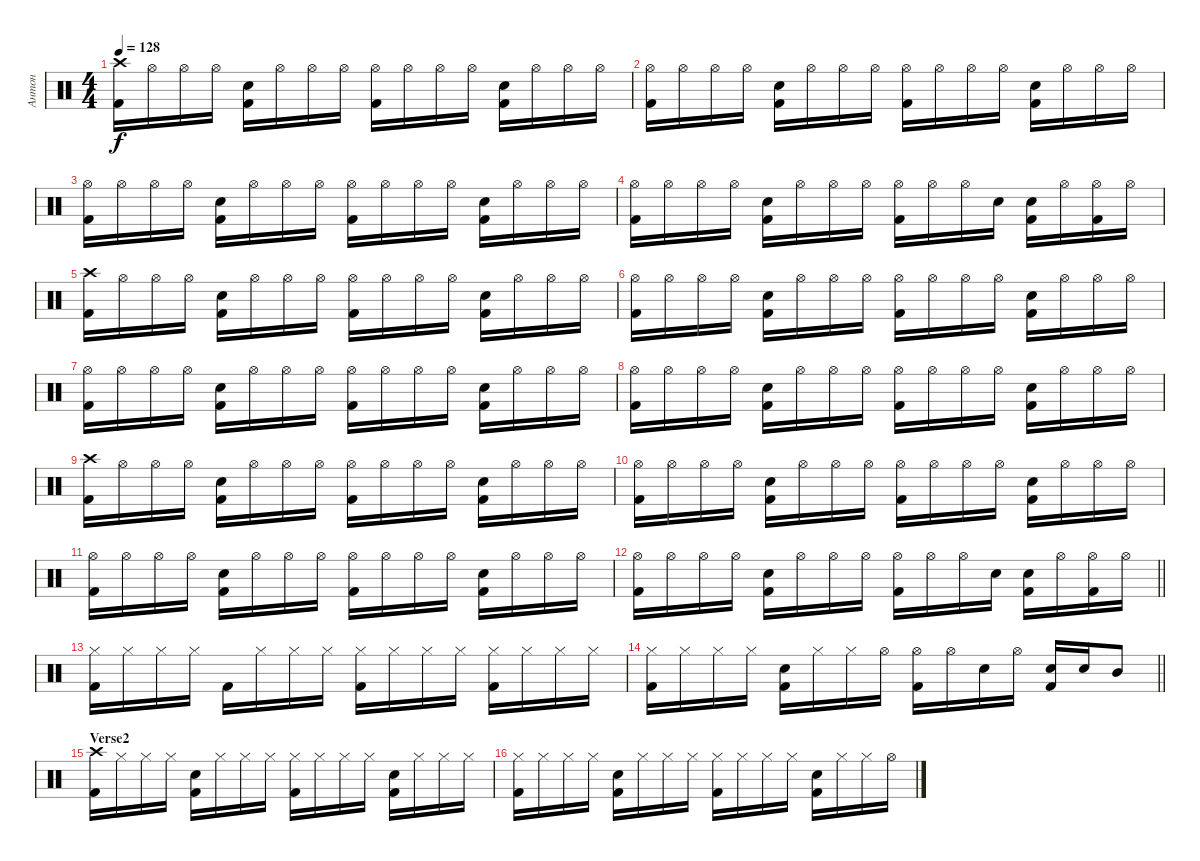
\track ("Антон" "Антон") {instrument percussion}
\staff {score}
\articulation defaults
\ts (4 4)
\tempo 128
\clef neutral
\ks c
("Crash high (hit)" "Kick (hit) 2").16{dy f} "Hi-Hat (open)".16 "Hi-Hat (open)".16 "Hi-Hat (open)".16 ("Snare (hit) 2" "Kick (hit) 2").16 "Hi-Hat (open)".16 "Hi-Hat (open)".16 "Hi-Hat (open)".16 ("Hi-Hat (open)" "Kick (hit) 2").16 "Hi-Hat (open)".16 "Hi-Hat (open)".16 "Hi-Hat (open)".16 ("Snare (hit) 2" "Kick (hit) 2").16 "Hi-Hat (open)".16 "Hi-Hat (open)".16 "Hi-Hat (open)".16 |
("Hi-Hat (open)" "Kick (hit) 2").16 "Hi-Hat (open)".16 "Hi-Hat (open)".16 "Hi-Hat (open)".16 ("Snare (hit) 2" "Kick (hit) 2").16 "Hi-Hat (open)".16 "Hi-Hat (open)".16 "Hi-Hat (open)".16 ("Hi-Hat (open)" "Kick (hit) 2").16 "Hi-Hat (open)".16 "Hi-Hat (open)".16 "Hi-Hat (open)".16 ("Snare (hit) 2" "Kick (hit) 2").16 "Hi-Hat (open)".16 "Hi-Hat (open)".16 "Hi-Hat (open)".16 |
("Hi-Hat (open)" "Kick (hit) 2").16 "Hi-Hat (open)".16 "Hi-Hat (open)".16 "Hi-Hat (open)".16 ("Snare (hit) 2" "Kick (hit) 2").16 "Hi-Hat (open)".16 "Hi-Hat (open)".16 "Hi-Hat (open)".16 ("Hi-Hat (open)" "Kick (hit) 2").16 "Hi-Hat (open)".16 "Hi-Hat (open)".16 "Hi-Hat (open)".16 ("Snare (hit) 2" "Kick (hit) 2").16 "Hi-Hat (open)".16 "Hi-Hat (open)".16 "Hi-Hat (open)".16 |
("Hi-Hat (open)" "Kick (hit) 2").16 "Hi-Hat (open)".16 "Hi-Hat (open)".16 "Hi-Hat (open)".16 ("Snare (hit) 2" "Kick (hit) 2").16 "Hi-Hat (open)".16 "Hi-Hat (open)".16 "Hi-Hat (open)".16 ("Hi-Hat (open)" "Kick (hit) 2").16 "Hi-Hat (open)".16 "Hi-Hat (open)".16 "Snare (hit) 2".16 ("Snare (hit) 2" "Kick (hit) 2").16 "Hi-Hat (open)".16 ("Hi-Hat (open)" "Kick (hit) 2").16 "Hi-Hat (open)".16 |
("Crash high (hit)" "Kick (hit) 2").16 "Hi-Hat (open)".16 "Hi-Hat (open)".16 "Hi-Hat (open)".16 ("Snare (hit) 2" "Kick (hit) 2").16 "Hi-Hat (open)".16 "Hi-Hat (open)".16 "Hi-Hat (open)".16 ("Hi-Hat (open)" "Kick (hit) 2").16 "Hi-Hat (open)".16 "Hi-Hat (open)".16 "Hi-Hat (open)".16 ("Snare (hit) 2" "Kick (hit) 2").16 "Hi-Hat (open)".16 "Hi-Hat (open)".16 "Hi-Hat (open)".16 |
("Hi-Hat (open)" "Kick (hit) 2").16 "Hi-Hat (open)".16 "Hi-Hat (open)".16 "Hi-Hat (open)".16 ("Snare (hit) 2" "Kick (hit) 2").16 "Hi-Hat (open)".16 "Hi-Hat (open)".16 "Hi-Hat (open)".16 ("Hi-Hat (open)" "Kick (hit) 2").16 "Hi-Hat (open)".16 "Hi-Hat (open)".16 "Hi-Hat (open)".16 ("Snare (hit) 2" "Kick (hit) 2").16 "Hi-Hat (open)".16 "Hi-Hat (open)".16 "Hi-Hat (open)".16 |
("Hi-Hat (open)" "Kick (hit) 2").16 "Hi-Hat (open)".16 "Hi-Hat (open)".16 "Hi-Hat (open)".16 ("Snare (hit) 2" "Kick (hit) 2").16 "Hi-Hat (open)".16 "Hi-Hat (open)".16 "Hi-Hat (open)".16 ("Hi-Hat (open)" "Kick (hit) 2").16 "Hi-Hat (open)".16 "Hi-Hat (open)".16 "Hi-Hat (open)".16 ("Snare (hit) 2" "Kick (hit) 2").16 "Hi-Hat (open)".16 "Hi-Hat (open)".16 "Hi-Hat (open)".16 |
("Hi-Hat (open)" "Kick (hit) 2").16 "Hi-Hat (open)".16 "Hi-Hat (open)".16 "Hi-Hat (open)".16 ("Snare (hit) 2" "Kick (hit) 2").16 "Hi-Hat (open)".16 "Hi-Hat (open)".16 "Hi-Hat (open)".16 ("Hi-Hat (open)" "Kick (hit) 2").16 "Hi-Hat (open)".16 "Hi-Hat (open)".16 "Hi-Hat (open)".16 ("Snare (hit) 2" "Kick (hit) 2").16 "Hi-Hat (open)".16 "Hi-Hat (open)".16 "Hi-Hat (open)".16 |
("Crash high (hit)" "Kick (hit) 2").16 "Hi-Hat (open)".16 "Hi-Hat (open)".16 "Hi-Hat (open)".16 ("Snare (hit) 2" "Kick (hit) 2").16 "Hi-Hat (open)".16 "Hi-Hat (open)".16 "Hi-Hat (open)".16 ("Hi-Hat (open)" "Kick (hit) 2").16 "Hi-Hat (open)".16 "Hi-Hat (open)".16 "Hi-Hat (open)".16 ("Snare (hit) 2" "Kick (hit) 2").16 "Hi-Hat (open)".16 "Hi-Hat (open)".16 "Hi-Hat (open)".16 |
("Hi-Hat (open)" "Kick (hit) 2").16 "Hi-Hat (open)".16 "Hi-Hat (open)".16 "Hi-Hat (open)".16 ("Snare (hit) 2" "Kick (hit) 2").16 "Hi-Hat (open)".16 "Hi-Hat (open)".16 "Hi-Hat (open)".16 ("Hi-Hat (open)" "Kick (hit) 2").16 "Hi-Hat (open)".16 "Hi-Hat (open)".16 "Hi-Hat (open)".16 ("Snare (hit) 2" "Kick (hit) 2").16 "Hi-Hat (open)".16 "Hi-Hat (open)".16 "Hi-Hat (open)".16 |
("Hi-Hat (open)" "Kick (hit) 2").16 "Hi-Hat (open)".16 "Hi-Hat (open)".16 "Hi-Hat (open)".16 ("Snare (hit) 2" "Kick (hit) 2").16 "Hi-Hat (open)".16 "Hi-Hat (open)".16 "Hi-Hat (open)".16 ("Hi-Hat (open)" "Kick (hit) 2").16 "Hi-Hat (open)".16 "Hi-Hat (open)".16 "Hi-Hat (open)".16 ("Snare (hit) 2" "Kick (hit) 2").16 "Hi-Hat (open)".16 "Hi-Hat (open)".16 "Hi-Hat (open)".16 |
\barLineRight lightlight
("Hi-Hat (open)" "Kick (hit) 2").16 "Hi-Hat (open)".16 "Hi-Hat (open)".16 "Hi-Hat (open)".16 ("Snare (hit) 2" "Kick (hit) 2").16 "Hi-Hat (open)".16 "Hi-Hat (open)".16 "Hi-Hat (open)".16 ("Hi-Hat (open)" "Kick (hit) 2").16 "Hi-Hat (open)".16 "Hi-Hat (open)".16 "Snare (hit) 2".16 ("Snare (hit) 2" "Kick (hit) 2").16 "Hi-Hat (open)".16 ("Hi-Hat (open)" "Kick (hit) 2").16 "Hi-Hat (open)".16 |
("Hi-Hat (closed)" "Kick (hit) 2").16 "Hi-Hat (closed)".16 "Hi-Hat (closed)".16 "Hi-Hat (closed)".16 "Kick (hit) 2".16 "Hi-Hat (closed)".16 "Hi-Hat (closed)".16 "Hi-Hat (closed)".16 ("Hi-Hat (closed)" "Kick (hit) 2").16 "Hi-Hat (closed)".16 "Hi-Hat (closed)".16 "Hi-Hat (closed)".16 ("Hi-Hat (closed)" "Kick (hit) 2").16 "Hi-Hat (closed)".16 "Hi-Hat (closed)".16 "Hi-Hat (closed)".16 |
\barLineRight lightlight
("Hi-Hat (closed)" "Kick (hit) 2").16 "Hi-Hat (closed)".16 "Hi-Hat (closed)".16 "Hi-Hat (closed)".16 ("Snare (hit) 2" "Kick (hit) 2").16 "Hi-Hat (closed)".16 "Hi-Hat (closed)".16 "Hi-Hat (open)".16 ("Hi-Hat (open)" "Kick (hit) 2").16 "Hi-Hat (open)".16 "Snare (hit) 2".16 "Hi-Hat (open)".16 ("Snare (hit) 2" "Kick (hit) 2").16 "Snare (hit) 2".16 "Mid Tom (hit)".8 |
\section ("" "Verse2")
("Crash high (hit)" "Kick (hit) 2").16 "Hi-Hat (closed)".16 "Hi-Hat (closed)".16 "Hi-Hat (closed)".16 ("Snare (hit) 2" "Kick (hit) 2").16 "Hi-Hat (closed)".16 "Hi-Hat (closed)".16 "Hi-Hat (closed)".16 ("Hi-Hat (closed)" "Kick (hit) 2").16 "Hi-Hat (closed)".16 "Hi-Hat (closed)".16 "Hi-Hat (closed)".16 ("Snare (hit) 2" "Kick (hit) 2").16 "Hi-Hat (closed)".16 "Hi-Hat (closed)".16 "Hi-Hat (closed)".16 |
("Hi-Hat (closed)" "Kick (hit) 2").16 "Hi-Hat (closed)".16 "Hi-Hat (closed)".16 "Hi-Hat (closed)".16 ("Snare (hit) 2" "Kick (hit) 2").16 "Hi-Hat (closed)".16 "Hi-Hat (closed)".16 "Hi-Hat (closed)".16 ("Hi-Hat (closed)" "Kick (hit) 2").16 "Hi-Hat (closed)".16 "Hi-Hat (closed)".16 "Hi-Hat (closed)".16 ("Snare (hit) 2" "Kick (hit) 2").16 "Hi-Hat (closed)".16 "Hi-Hat (closed)".16 "Hi-Hat (open)".16
